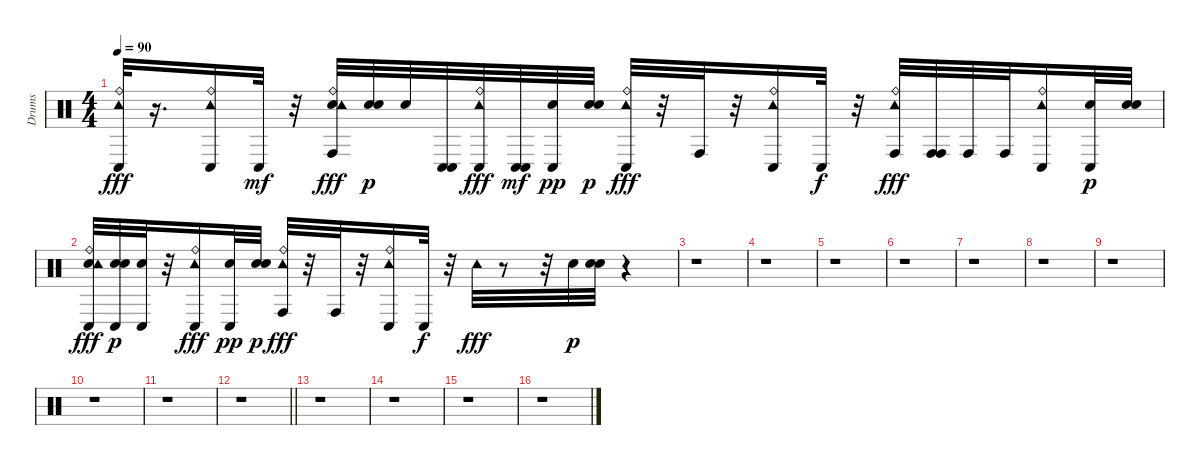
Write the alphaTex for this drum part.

\track ("Drums" "Drums") {instrument percussion}
\staff {score}
\articulation defaults
\ts (4 4)
\tempo 90
\clef neutral
\ks c
("Ride (bell)" "Conga low (hit)" "Tambourine (hit)").32{dy fff} r.16{d} ("Ride (bell)" "Conga low (hit)" "Tambourine (hit)").16 "Conga low (hit)".32{dy mf} r.32 ("Ride (bell)" "Conga high (hit)" "Electric Snare (hit)" "Tambourine (hit)").32{dy fff} ("Electric Snare (hit)" "Electric Snare (hit)").32{dy p} "Electric Snare (hit)".32 ("Conga low (hit)" "Conga low (hit)").32 ("Ride (bell)" "Conga low (hit)" "Tambourine (hit)").32{dy fff} ("Conga low (hit)" "Conga low (hit)").32{dy mf} ("Conga low (hit)" "Electric Snare (hit)").32{dy pp} ("Electric Snare (hit)" "Electric Snare (hit)").32{dy p} ("Ride (bell)" "Conga low (hit)" "Tambourine (hit)").32{dy fff} r.32 "Conga high (hit)".32 r.32 ("Ride (bell)" "Conga low (hit)" "Tambourine (hit)").16 "Conga low (hit)".32{dy f} r.32 ("Ride (bell)" "Conga high (hit)" "Tambourine (hit)").32{dy fff} ("Conga high (hit)" "Conga high (hit)").32 "Conga high (hit)".32 "Conga high (hit)".32 ("Ride (bell)" "Conga low (hit)" "Tambourine (hit)").16 ("Conga low (hit)" "Electric Snare (hit)").32{dy p} ("Electric Snare (hit)" "Electric Snare (hit)").32 |
("Ride (bell)" "Conga low (hit)" "Electric Snare (hit)" "Tambourine (hit)").32{dy fff} ("Electric Snare (hit)" "Conga low (hit)" "Electric Snare (hit)").32{dy p} ("Conga low (hit)" "Electric Snare (hit)").32 r.32 ("Ride (bell)" "Conga low (hit)" "Tambourine (hit)").16{dy fff} ("Conga low (hit)" "Electric Snare (hit)").32{dy pp} ("Electric Snare (hit)" "Electric Snare (hit)").32{dy p} ("Ride (bell)" "Conga high (hit)" "Tambourine (hit)").32{dy fff} r.32 "Conga high (hit)".32 r.32 ("Ride (bell)" "Conga low (hit)" "Tambourine (hit)").16 "Conga low (hit)".32{dy f} r.32 "Tambourine (hit)".32{dy fff} r.8 r.32 "Electric Snare (hit)".32{dy p} ("Electric Snare (hit)" "Electric Snare (hit)").32 r.4 |
r.1 |
r.1 |
r.1 |
r.1 |
r.1 |
r.1 |
r.1 |
r.1 |
r.1 |
\barLineRight lightlight
r.1 |
r.1 |
r.1 |
r.1 |
r.1
